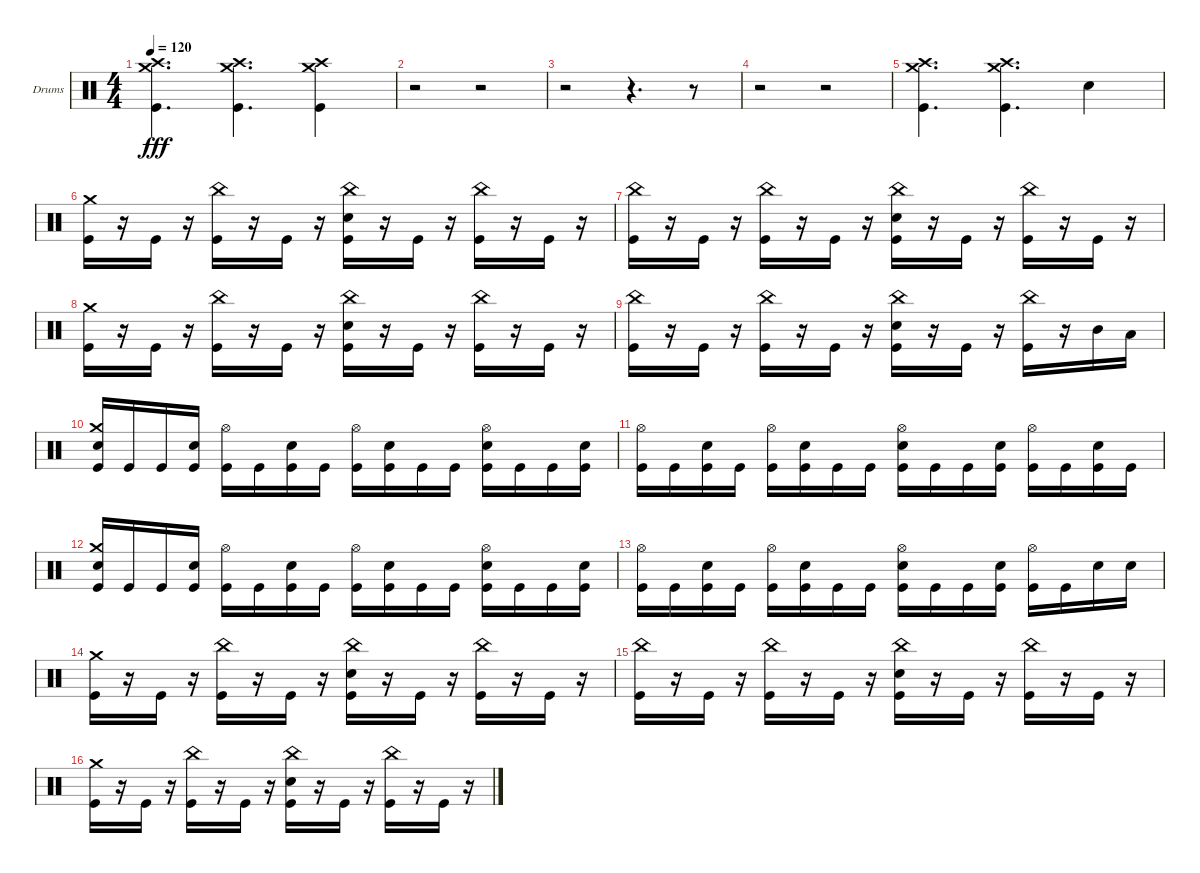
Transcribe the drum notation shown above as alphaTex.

\bracketExtendMode groupsimilarinstruments
\firstSystemTrackNameOrientation horizontal
\otherSystemsTrackNameOrientation horizontal
\track ("Drumkit" "Drums") {instrument percussion}
\staff {score}
\articulation defaults
\ts (4 4)
\tempo 120
\clef neutral
\ks c
("Kick (hit)" "Crash medium (hit)" "Crash high (hit)").4{d dy fff} ("Crash high (hit)" "Crash medium (hit)" "Kick (hit)").4{d} ("Crash high (hit)" "Crash medium (hit)" "Kick (hit)").4 |
r.2 r.2 |
r.2 r.4{d} r.8 |
r.2 r.2 |
("Kick (hit)" "Crash medium (hit)" "Crash high (hit)").4{d} ("Crash high (hit)" "Crash medium (hit)" "Kick (hit)").4{d} "Snare (hit) 2".4 |
("Kick (hit)" "Crash medium (hit)").16 r.16 "Kick (hit)".16 r.16 ("Kick (hit)" "China (hit)").16 r.16 "Kick (hit)".16 r.16 ("Kick (hit)" "China (hit)" "Snare (hit) 2").16 r.16 "Kick (hit)".16 r.16 ("Kick (hit)" "China (hit)").16 r.16 "Kick (hit)".16 r.16 |
("Kick (hit)" "China (hit)").16 r.16 "Kick (hit)".16 r.16 ("Kick (hit)" "China (hit)").16 r.16 "Kick (hit)".16 r.16 ("Kick (hit)" "China (hit)" "Snare (hit) 2").16 r.16 "Kick (hit)".16 r.16 ("Kick (hit)" "China (hit)").16 r.16 "Kick (hit)".16 r.16 |
("Kick (hit)" "Crash medium (hit)").16 r.16 "Kick (hit)".16 r.16 ("Kick (hit)" "China (hit)").16 r.16 "Kick (hit)".16 r.16 ("Kick (hit)" "China (hit)" "Snare (hit) 2").16 r.16 "Kick (hit)".16 r.16 ("Kick (hit)" "China (hit)").16 r.16 "Kick (hit)".16 r.16 |
("Kick (hit)" "China (hit)").16 r.16 "Kick (hit)".16 r.16 ("Kick (hit)" "China (hit)").16 r.16 "Kick (hit)".16 r.16 ("Kick (hit)" "China (hit)" "Snare (hit) 2").16 r.16 "Kick (hit)".16 r.16 ("Kick (hit)" "China (hit)").16 r.16 "Mid Tom (hit)".16 "Low Tom (hit)".16 |
("Kick (hit)" "Snare (hit) 2" "Crash medium (hit)").16 "Kick (hit)".16 "Kick (hit)".16 ("Kick (hit)" "Snare (hit) 2").16 ("Kick (hit)" "Hi-Hat (open)").16 "Kick (hit)".16 ("Kick (hit)" "Snare (hit) 2").16 "Kick (hit)".16 ("Kick (hit)" "Hi-Hat (open)").16 ("Kick (hit)" "Snare (hit) 2").16 "Kick (hit)".16 "Kick (hit)".16 ("Kick (hit)" "Snare (hit) 2" "Hi-Hat (open)").16 "Kick (hit)".16 "Kick (hit)".16 ("Kick (hit)" "Snare (hit) 2").16 |
("Kick (hit)" "Hi-Hat (open)").16 "Kick (hit)".16 ("Kick (hit)" "Snare (hit) 2").16 "Kick (hit)".16 ("Kick (hit)" "Hi-Hat (open)").16 ("Kick (hit)" "Snare (hit) 2").16 "Kick (hit)".16 "Kick (hit)".16 ("Kick (hit)" "Snare (hit) 2" "Hi-Hat (open)").16 "Kick (hit)".16 "Kick (hit)".16 ("Kick (hit)" "Snare (hit) 2").16 ("Kick (hit)" "Hi-Hat (open)").16 "Kick (hit)".16 ("Kick (hit)" "Snare (hit) 2").16 "Kick (hit)".16 |
("Kick (hit)" "Snare (hit) 2" "Crash medium (hit)").16 "Kick (hit)".16 "Kick (hit)".16 ("Kick (hit)" "Snare (hit) 2").16 ("Kick (hit)" "Hi-Hat (open)").16 "Kick (hit)".16 ("Kick (hit)" "Snare (hit) 2").16 "Kick (hit)".16 ("Kick (hit)" "Hi-Hat (open)").16 ("Kick (hit)" "Snare (hit) 2").16 "Kick (hit)".16 "Kick (hit)".16 ("Kick (hit)" "Snare (hit) 2" "Hi-Hat (open)").16 "Kick (hit)".16 "Kick (hit)".16 ("Kick (hit)" "Snare (hit) 2").16 |
("Kick (hit)" "Hi-Hat (open)").16 "Kick (hit)".16 ("Kick (hit)" "Snare (hit) 2").16 "Kick (hit)".16 ("Kick (hit)" "Hi-Hat (open)").16 ("Kick (hit)" "Snare (hit) 2").16 "Kick (hit)".16 "Kick (hit)".16 ("Kick (hit)" "Snare (hit) 2" "Hi-Hat (open)").16 "Kick (hit)".16 "Kick (hit)".16 ("Kick (hit)" "Snare (hit) 2").16 ("Kick (hit)" "Hi-Hat (open)").16 "Kick (hit)".16 "Snare (hit) 2".16 "Snare (hit) 2".16 |
("Kick (hit)" "Crash medium (hit)").16 r.16 "Kick (hit)".16 r.16 ("Kick (hit)" "China (hit)").16 r.16 "Kick (hit)".16 r.16 ("Kick (hit)" "China (hit)" "Snare (hit) 2").16 r.16 "Kick (hit)".16 r.16 ("Kick (hit)" "China (hit)").16 r.16 "Kick (hit)".16 r.16 |
("Kick (hit)" "China (hit)").16 r.16 "Kick (hit)".16 r.16 ("Kick (hit)" "China (hit)").16 r.16 "Kick (hit)".16 r.16 ("Kick (hit)" "China (hit)" "Snare (hit) 2").16 r.16 "Kick (hit)".16 r.16 ("Kick (hit)" "China (hit)").16 r.16 "Kick (hit)".16 r.16 |
("Kick (hit)" "Crash medium (hit)").16 r.16 "Kick (hit)".16 r.16 ("Kick (hit)" "China (hit)").16 r.16 "Kick (hit)".16 r.16 ("Kick (hit)" "China (hit)" "Snare (hit) 2").16 r.16 "Kick (hit)".16 r.16 ("Kick (hit)" "China (hit)").16 r.16 "Kick (hit)".16 r.16
